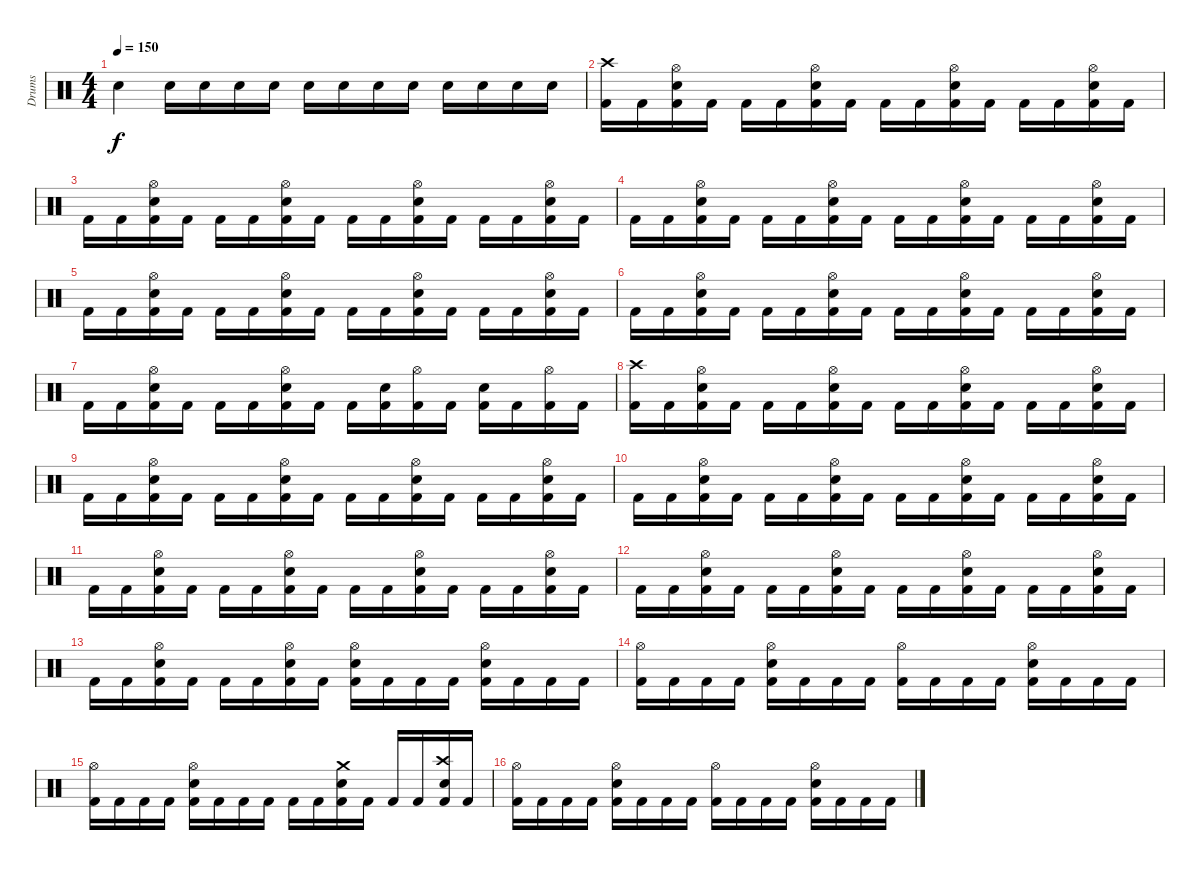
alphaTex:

\track ("Drums" "Drums") {instrument percussion}
\staff {score}
\articulation defaults
\ts (4 4)
\tempo 150
\clef neutral
\ks c "Snare (hit) 2".4{dy f} "Snare (hit) 2".16 "Snare (hit) 2".16 "Snare (hit) 2".16 "Snare (hit) 2".16 "Snare (hit) 2".16 "Snare (hit) 2".16 "Snare (hit) 2".16 "Snare (hit) 2".16 "Snare (hit) 2".16 "Snare (hit) 2".16 "Snare (hit) 2".16 "Snare (hit) 2".16
|
("Crash high (hit)" "Kick (hit) 2").16 "Kick (hit) 2".16 ("Hi-Hat (open)" "Snare (hit) 2" "Kick (hit) 2").16 "Kick (hit) 2".16 "Kick (hit) 2".16 "Kick (hit) 2".16 ("Hi-Hat (open)" "Snare (hit) 2" "Kick (hit) 2").16 "Kick (hit) 2".16 "Kick (hit) 2".16 "Kick (hit) 2".16 ("Hi-Hat (open)" "Snare (hit) 2" "Kick (hit) 2").16 "Kick (hit) 2".16 "Kick (hit) 2".16 "Kick (hit) 2".16 ("Hi-Hat (open)" "Snare (hit) 2" "Kick (hit) 2").16 "Kick (hit) 2".16 |
"Kick (hit) 2".16 "Kick (hit) 2".16 ("Hi-Hat (open)" "Snare (hit) 2" "Kick (hit) 2").16 "Kick (hit) 2".16 "Kick (hit) 2".16 "Kick (hit) 2".16 ("Hi-Hat (open)" "Snare (hit) 2" "Kick (hit) 2").16 "Kick (hit) 2".16 "Kick (hit) 2".16 "Kick (hit) 2".16 ("Hi-Hat (open)" "Snare (hit) 2" "Kick (hit) 2").16 "Kick (hit) 2".16 "Kick (hit) 2".16 "Kick (hit) 2".16 ("Hi-Hat (open)" "Snare (hit) 2" "Kick (hit) 2").16 "Kick (hit) 2".16 |
"Kick (hit) 2".16 "Kick (hit) 2".16 ("Hi-Hat (open)" "Snare (hit) 2" "Kick (hit) 2").16 "Kick (hit) 2".16 "Kick (hit) 2".16 "Kick (hit) 2".16 ("Hi-Hat (open)" "Snare (hit) 2" "Kick (hit) 2").16 "Kick (hit) 2".16 "Kick (hit) 2".16 "Kick (hit) 2".16 ("Hi-Hat (open)" "Snare (hit) 2" "Kick (hit) 2").16 "Kick (hit) 2".16 "Kick (hit) 2".16 "Kick (hit) 2".16 ("Hi-Hat (open)" "Snare (hit) 2" "Kick (hit) 2").16 "Kick (hit) 2".16 |
"Kick (hit) 2".16 "Kick (hit) 2".16 ("Hi-Hat (open)" "Snare (hit) 2" "Kick (hit) 2").16 "Kick (hit) 2".16 "Kick (hit) 2".16 "Kick (hit) 2".16 ("Hi-Hat (open)" "Snare (hit) 2" "Kick (hit) 2").16 "Kick (hit) 2".16 "Kick (hit) 2".16 "Kick (hit) 2".16 ("Hi-Hat (open)" "Snare (hit) 2" "Kick (hit) 2").16 "Kick (hit) 2".16 "Kick (hit) 2".16 "Kick (hit) 2".16 ("Hi-Hat (open)" "Snare (hit) 2" "Kick (hit) 2").16 "Kick (hit) 2".16 |
"Kick (hit) 2".16 "Kick (hit) 2".16 ("Hi-Hat (open)" "Snare (hit) 2" "Kick (hit) 2").16 "Kick (hit) 2".16 "Kick (hit) 2".16 "Kick (hit) 2".16 ("Hi-Hat (open)" "Snare (hit) 2" "Kick (hit) 2").16 "Kick (hit) 2".16 "Kick (hit) 2".16 "Kick (hit) 2".16 ("Hi-Hat (open)" "Snare (hit) 2" "Kick (hit) 2").16 "Kick (hit) 2".16 "Kick (hit) 2".16 "Kick (hit) 2".16 ("Hi-Hat (open)" "Snare (hit) 2" "Kick (hit) 2").16 "Kick (hit) 2".16 |
"Kick (hit) 2".16 "Kick (hit) 2".16 ("Hi-Hat (open)" "Snare (hit) 2" "Kick (hit) 2").16 "Kick (hit) 2".16 "Kick (hit) 2".16 "Kick (hit) 2".16 ("Hi-Hat (open)" "Snare (hit) 2" "Kick (hit) 2").16 "Kick (hit) 2".16 "Kick (hit) 2".16 ("Snare (hit) 2" "Kick (hit) 2").16 ("Hi-Hat (open)" "Kick (hit) 2").16 "Kick (hit) 2".16 ("Snare (hit) 2" "Kick (hit) 2").16 "Kick (hit) 2".16 ("Hi-Hat (open)" "Kick (hit) 2").16 "Kick (hit) 2".16 |
("Crash high (hit)" "Kick (hit) 2").16 "Kick (hit) 2".16 ("Hi-Hat (open)" "Snare (hit) 2" "Kick (hit) 2").16 "Kick (hit) 2".16 "Kick (hit) 2".16 "Kick (hit) 2".16 ("Hi-Hat (open)" "Snare (hit) 2" "Kick (hit) 2").16 "Kick (hit) 2".16 "Kick (hit) 2".16 "Kick (hit) 2".16 ("Hi-Hat (open)" "Snare (hit) 2" "Kick (hit) 2").16 "Kick (hit) 2".16 "Kick (hit) 2".16 "Kick (hit) 2".16 ("Hi-Hat (open)" "Snare (hit) 2" "Kick (hit) 2").16 "Kick (hit) 2".16 |
"Kick (hit) 2".16 "Kick (hit) 2".16 ("Hi-Hat (open)" "Snare (hit) 2" "Kick (hit) 2").16 "Kick (hit) 2".16 "Kick (hit) 2".16 "Kick (hit) 2".16 ("Hi-Hat (open)" "Snare (hit) 2" "Kick (hit) 2").16 "Kick (hit) 2".16 "Kick (hit) 2".16 "Kick (hit) 2".16 ("Hi-Hat (open)" "Snare (hit) 2" "Kick (hit) 2").16 "Kick (hit) 2".16 "Kick (hit) 2".16 "Kick (hit) 2".16 ("Hi-Hat (open)" "Snare (hit) 2" "Kick (hit) 2").16 "Kick (hit) 2".16 |
"Kick (hit) 2".16 "Kick (hit) 2".16 ("Hi-Hat (open)" "Snare (hit) 2" "Kick (hit) 2").16 "Kick (hit) 2".16 "Kick (hit) 2".16 "Kick (hit) 2".16 ("Hi-Hat (open)" "Snare (hit) 2" "Kick (hit) 2").16 "Kick (hit) 2".16 "Kick (hit) 2".16 "Kick (hit) 2".16 ("Hi-Hat (open)" "Snare (hit) 2" "Kick (hit) 2").16 "Kick (hit) 2".16 "Kick (hit) 2".16 "Kick (hit) 2".16 ("Hi-Hat (open)" "Snare (hit) 2" "Kick (hit) 2").16 "Kick (hit) 2".16 |
"Kick (hit) 2".16 "Kick (hit) 2".16 ("Hi-Hat (open)" "Snare (hit) 2" "Kick (hit) 2").16 "Kick (hit) 2".16 "Kick (hit) 2".16 "Kick (hit) 2".16 ("Hi-Hat (open)" "Snare (hit) 2" "Kick (hit) 2").16 "Kick (hit) 2".16 "Kick (hit) 2".16 "Kick (hit) 2".16 ("Hi-Hat (open)" "Snare (hit) 2" "Kick (hit) 2").16 "Kick (hit) 2".16 "Kick (hit) 2".16 "Kick (hit) 2".16 ("Hi-Hat (open)" "Snare (hit) 2" "Kick (hit) 2").16 "Kick (hit) 2".16 |
"Kick (hit) 2".16 "Kick (hit) 2".16 ("Hi-Hat (open)" "Snare (hit) 2" "Kick (hit) 2").16 "Kick (hit) 2".16 "Kick (hit) 2".16 "Kick (hit) 2".16 ("Hi-Hat (open)" "Snare (hit) 2" "Kick (hit) 2").16 "Kick (hit) 2".16 "Kick (hit) 2".16 "Kick (hit) 2".16 ("Hi-Hat (open)" "Snare (hit) 2" "Kick (hit) 2").16 "Kick (hit) 2".16 "Kick (hit) 2".16 "Kick (hit) 2".16 ("Hi-Hat (open)" "Snare (hit) 2" "Kick (hit) 2").16 "Kick (hit) 2".16 |
"Kick (hit) 2".16 "Kick (hit) 2".16 ("Hi-Hat (open)" "Snare (hit) 2" "Kick (hit) 2").16 "Kick (hit) 2".16 "Kick (hit) 2".16 "Kick (hit) 2".16 ("Hi-Hat (open)" "Snare (hit) 2" "Kick (hit) 2").16 "Kick (hit) 2".16 ("Hi-Hat (open)" "Snare (hit) 2" "Kick (hit) 2").16 "Kick (hit) 2".16 "Kick (hit) 2".16 "Kick (hit) 2".16 ("Hi-Hat (open)" "Snare (hit) 2" "Kick (hit) 2").16 "Kick (hit) 2".16 "Kick (hit) 2".16 "Kick (hit) 2".16 |
("Hi-Hat (open)" "Kick (hit) 2").16 "Kick (hit) 2".16 "Kick (hit) 2".16 "Kick (hit) 2".16 ("Hi-Hat (open)" "Snare (hit) 2" "Kick (hit) 2").16 "Kick (hit) 2".16 "Kick (hit) 2".16 "Kick (hit) 2".16 ("Hi-Hat (open)" "Kick (hit) 2").16 "Kick (hit) 2".16 "Kick (hit) 2".16 "Kick (hit) 2".16 ("Hi-Hat (open)" "Snare (hit) 2" "Kick (hit) 2").16 "Kick (hit) 2".16 "Kick (hit) 2".16 "Kick (hit) 2".16 |
("Hi-Hat (open)" "Kick (hit) 2").16 "Kick (hit) 2".16 "Kick (hit) 2".16 "Kick (hit) 2".16 ("Hi-Hat (open)" "Snare (hit) 2" "Kick (hit) 2").16 "Kick (hit) 2".16 "Kick (hit) 2".16 "Kick (hit) 2".16 "Kick (hit) 2".16 "Kick (hit) 2".16 ("Crash medium (hit)" "Snare (hit) 2" "Kick (hit) 2").16 "Kick (hit) 2".16 "Kick (hit) 2".16 "Kick (hit) 2".16 ("Crash high (hit)" "Snare (hit) 2" "Kick (hit) 2").16 "Kick (hit) 2".16 |
("Hi-Hat (open)" "Kick (hit) 2").16 "Kick (hit) 2".16 "Kick (hit) 2".16 "Kick (hit) 2".16 ("Hi-Hat (open)" "Snare (hit) 2" "Kick (hit) 2").16 "Kick (hit) 2".16 "Kick (hit) 2".16 "Kick (hit) 2".16 ("Hi-Hat (open)" "Kick (hit) 2").16 "Kick (hit) 2".16 "Kick (hit) 2".16 "Kick (hit) 2".16 ("Hi-Hat (open)" "Snare (hit) 2" "Kick (hit) 2").16 "Kick (hit) 2".16 "Kick (hit) 2".16 "Kick (hit) 2".16
